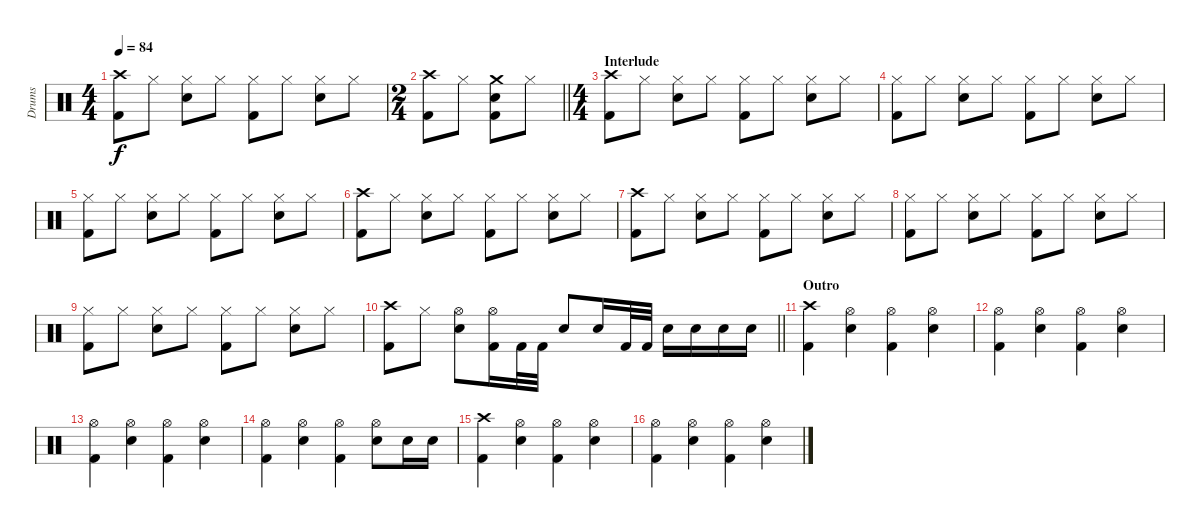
\track ("Drums" "Drums") {instrument percussion}
\staff {score}
\articulation defaults
\ts (4 4)
\tempo 84
\clef neutral
\ks c
("Crash high (hit)" "Kick (hit) 2").8{dy f} "Hi-Hat (closed)".8 ("Hi-Hat (closed)" "Snare (hit) 2").8 "Hi-Hat (closed)".8 ("Hi-Hat (closed)" "Kick (hit) 2").8 "Hi-Hat (closed)".8 ("Hi-Hat (closed)" "Snare (hit) 2").8 "Hi-Hat (closed)".8 |
\ts (2 4)
\barLineRight lightlight
("Crash high (hit)" "Kick (hit) 2").8 "Hi-Hat (closed)".8 ("Crash medium (hit)" "Snare (hit) 2" "Kick (hit) 2").8 "Hi-Hat (closed)".8 |
\ts (4 4)
\section ("" "Interlude")
("Crash high (hit)" "Kick (hit) 2").8 "Hi-Hat (closed)".8 ("Hi-Hat (closed)" "Snare (hit) 2").8 "Hi-Hat (closed)".8 ("Hi-Hat (closed)" "Kick (hit) 2").8 "Hi-Hat (closed)".8 ("Hi-Hat (closed)" "Snare (hit) 2").8 "Hi-Hat (closed)".8 |
("Hi-Hat (closed)" "Kick (hit) 2").8 "Hi-Hat (closed)".8 ("Hi-Hat (closed)" "Snare (hit) 2").8 "Hi-Hat (closed)".8 ("Hi-Hat (closed)" "Kick (hit) 2").8 "Hi-Hat (closed)".8 ("Hi-Hat (closed)" "Snare (hit) 2").8 "Hi-Hat (closed)".8 |
("Hi-Hat (closed)" "Kick (hit) 2").8 "Hi-Hat (closed)".8 ("Hi-Hat (closed)" "Snare (hit) 2").8 "Hi-Hat (closed)".8 ("Hi-Hat (closed)" "Kick (hit) 2").8 "Hi-Hat (closed)".8 ("Hi-Hat (closed)" "Snare (hit) 2").8 "Hi-Hat (closed)".8 |
("Crash high (hit)" "Kick (hit) 2").8 "Hi-Hat (closed)".8 ("Hi-Hat (closed)" "Snare (hit) 2").8 "Hi-Hat (closed)".8 ("Hi-Hat (closed)" "Kick (hit) 2").8 "Hi-Hat (closed)".8 ("Hi-Hat (closed)" "Snare (hit) 2").8 "Hi-Hat (closed)".8 |
("Crash high (hit)" "Kick (hit) 2").8 "Hi-Hat (closed)".8 ("Hi-Hat (closed)" "Snare (hit) 2").8 "Hi-Hat (closed)".8 ("Hi-Hat (closed)" "Kick (hit) 2").8 "Hi-Hat (closed)".8 ("Hi-Hat (closed)" "Snare (hit) 2").8 "Hi-Hat (closed)".8 |
("Hi-Hat (closed)" "Kick (hit) 2").8 "Hi-Hat (closed)".8 ("Hi-Hat (closed)" "Snare (hit) 2").8 "Hi-Hat (closed)".8 ("Hi-Hat (closed)" "Kick (hit) 2").8 "Hi-Hat (closed)".8 ("Hi-Hat (closed)" "Snare (hit) 2").8 "Hi-Hat (closed)".8 |
("Hi-Hat (closed)" "Kick (hit) 2").8 "Hi-Hat (closed)".8 ("Hi-Hat (closed)" "Snare (hit) 2").8 "Hi-Hat (closed)".8 ("Hi-Hat (closed)" "Kick (hit) 2").8 "Hi-Hat (closed)".8 ("Hi-Hat (closed)" "Snare (hit) 2").8 "Hi-Hat (closed)".8 |
\barLineRight lightlight
("Crash high (hit)" "Kick (hit) 2").8 "Hi-Hat (closed)".8 ("Hi-Hat (open)" "Snare (hit) 2").8 ("Hi-Hat (open)" "Kick (hit) 2").16 "Kick (hit) 2".32 "Kick (hit) 2".32 "Snare (hit) 2".8 "Snare (hit) 2".16 "Kick (hit) 2".32 "Kick (hit) 2".32 "Snare (hit) 2".16 "Snare (hit) 2".16 "Electric Snare (hit)".16 "Electric Snare (hit)".16 |
\section ("" "Outro")
("Crash high (hit)" "Kick (hit) 2").4 ("Hi-Hat (open)" "Snare (hit) 2").4 ("Hi-Hat (open)" "Kick (hit) 2").4 ("Hi-Hat (open)" "Snare (hit) 2").4 |
("Hi-Hat (open)" "Kick (hit) 2").4 ("Hi-Hat (open)" "Snare (hit) 2").4 ("Hi-Hat (open)" "Kick (hit) 2").4 ("Hi-Hat (open)" "Snare (hit) 2").4 |
("Hi-Hat (open)" "Kick (hit) 2").4 ("Hi-Hat (open)" "Snare (hit) 2").4 ("Hi-Hat (open)" "Kick (hit) 2").4 ("Hi-Hat (open)" "Snare (hit) 2").4 |
("Hi-Hat (open)" "Kick (hit) 2").4 ("Hi-Hat (open)" "Snare (hit) 2").4 ("Hi-Hat (open)" "Kick (hit) 2").4 ("Hi-Hat (open)" "Snare (hit) 2").8 "Snare (hit) 2".16 "Snare (hit) 2".16 |
("Crash high (hit)" "Kick (hit) 2").4 ("Hi-Hat (open)" "Snare (hit) 2").4 ("Hi-Hat (open)" "Kick (hit) 2").4 ("Hi-Hat (open)" "Snare (hit) 2").4 |
("Hi-Hat (open)" "Kick (hit) 2").4 ("Hi-Hat (open)" "Snare (hit) 2").4 ("Hi-Hat (open)" "Kick (hit) 2").4 ("Hi-Hat (open)" "Snare (hit) 2").4
